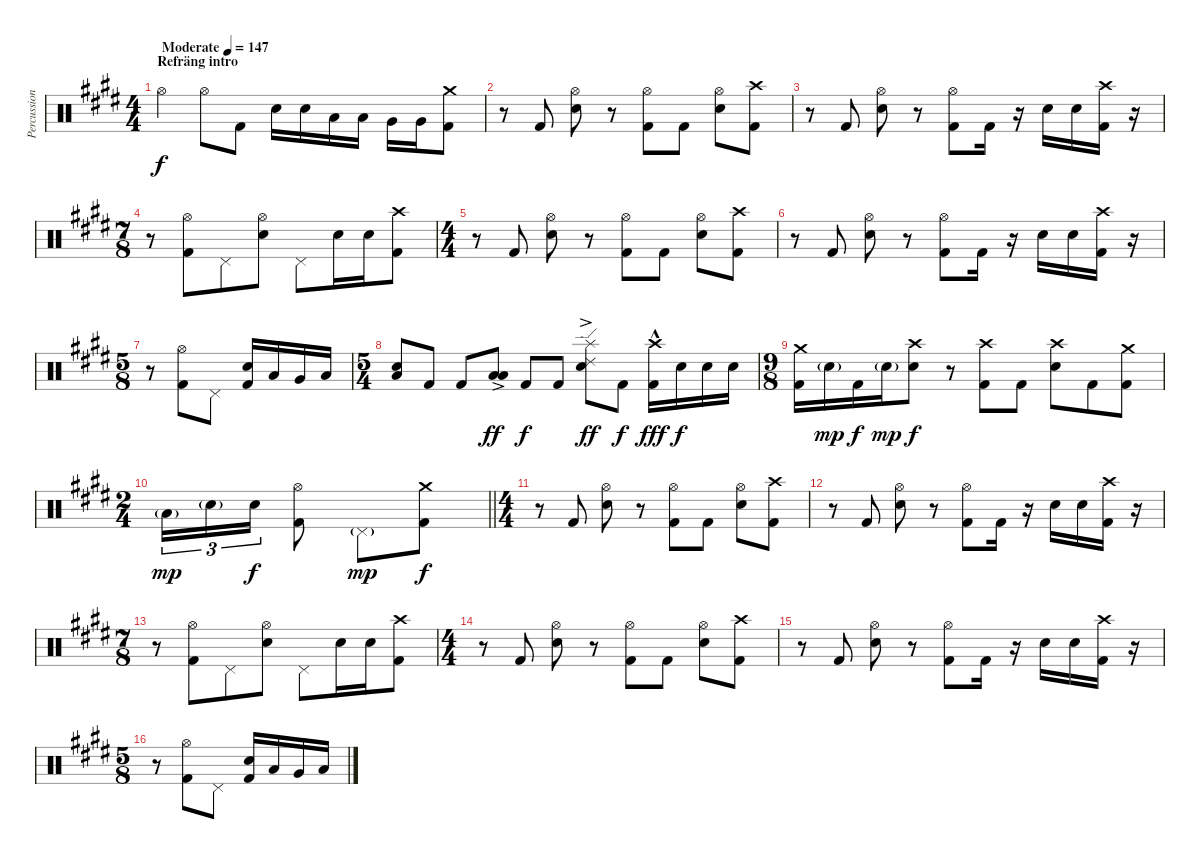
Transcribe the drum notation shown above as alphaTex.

\track ("Percussion" "Percussion") {instrument percussion}
\staff {score}
\articulation defaults
\ts (4 4)
\section ("" "Refräng intro")
\tempo (147 "Moderate")
\clef neutral
\ks e "Hi-Hat (open)".4{dy f} "Hi-Hat (open)".8 "Kick (hit) 2".8 "Snare (hit) 2".16 "Snare (hit) 2".16 "Low Tom (hit)".16 "Low Tom (hit)".16 "Very Low Tom (hit)".16 "Very Low Tom (hit)".16
("Crash medium (hit)" "Kick (hit) 2").8 |
r.8 "Kick (hit) 2".8 ("Hi-Hat (open)" "Snare (hit) 2").8 r.8 ("Hi-Hat (open)" "Kick (hit) 2").8 "Kick (hit) 2".8 ("Hi-Hat (open)" "Snare (hit) 2").8 ("Crash high (hit)" "Kick (hit) 2").8 |
r.8 "Kick (hit) 2".8 ("Hi-Hat (open)" "Snare (hit) 2").8 r.8 ("Hi-Hat (open)" "Kick (hit) 2").8 "Kick (hit) 2".16 r.16 "Snare (hit) 2".16 "Snare (hit) 2".16 ("Crash high (hit)" "Kick (hit) 2").16 r.16 |
\ts (7 8)
r.8 ("Hi-Hat (open)" "Kick (hit) 2").8 "Pedal Hi-Hat (hit)".8 ("Hi-Hat (open)" "Snare (hit) 2").8 "Pedal Hi-Hat (hit)".8 "Snare (hit) 2".16 "Snare (hit) 2".16 ("Crash high (hit)" "Kick (hit) 2").8 |
\ts (4 4)
r.8 "Kick (hit) 2".8 ("Hi-Hat (open)" "Snare (hit) 2").8 r.8 ("Hi-Hat (open)" "Kick (hit) 2").8 "Kick (hit) 2".8 ("Hi-Hat (open)" "Snare (hit) 2").8 ("Crash high (hit)" "Kick (hit) 2").8 |
r.8 "Kick (hit) 2".8 ("Hi-Hat (open)" "Snare (hit) 2").8 r.8 ("Hi-Hat (open)" "Kick (hit) 2").8 "Kick (hit) 2".16 r.16 "Snare (hit) 2".16 "Snare (hit) 2".16 ("Crash high (hit)" "Kick (hit) 2").16 r.16 |
\ts (5 8)
r.8 ("Hi-Hat (open)" "Kick (hit) 2").8 "Pedal Hi-Hat (hit)".8 ("Snare (hit) 2" "Kick (hit) 2").16 "Low Tom (hit)".16 "Very Low Tom (hit)".16 "Low Floor Tom (hit)".16 |
\ts (5 4)
("Snare (hit) 2" "Low Tom (hit)").8{bd 120} "Kick (hit) 2".8 "Kick (hit) 2".8 ("Low Tom (hit)"{ac} "Low Floor Tom (hit)"{ac}).8{bd 120 dy ff} "Kick (hit) 2".8{dy f} "Kick (hit) 2".8 ("Ride (edge) 2" "Splash (hit)" "Snare (hit) 2"{ac}).8{dy ff} "Kick (hit) 2".8{dy f} ("Crash high (hit)"{hac} "Kick (hit) 2"{hac}).16{dy fff} "Snare (hit) 2".16{dy f} "Snare (hit) 2".16 "Snare (hit) 2".16 |
\ts (9 8)
("Crash medium (hit)" "Kick (hit) 2").16 "Snare (hit) 2"{g}.16{dy mp} "Kick (hit) 2".16{dy f} "Snare (hit) 2"{g}.16{dy mp} ("Crash high (hit)" "Snare (hit) 2").8{dy f} r.8 ("Crash high (hit)" "Kick (hit) 2").8 "Kick (hit) 2".8 ("Crash high (hit)" "Snare (hit) 2").8 "Kick (hit) 2".8 ("Crash medium (hit)" "Kick (hit) 2").8 |
\ts (2 4)
\barLineRight lightlight "Low Tom (hit)"{g}.16{tu (3 2) dy mp} "Snare (hit) 2"{g}.16{tu (3 2)} "Snare (hit) 2".16{tu (3 2) dy f}
("Hi-Hat (open)" "Kick (hit) 2").8 "Pedal Hi-Hat (hit)"{g}.8{dy mp} ("Crash medium (hit)" "Kick (hit) 2").8{dy f} |
\ts (4 4)
r.8 "Kick (hit) 2".8 ("Hi-Hat (open)" "Snare (hit) 2").8 r.8 ("Hi-Hat (open)" "Kick (hit) 2").8 "Kick (hit) 2".8 ("Hi-Hat (open)" "Snare (hit) 2").8 ("Crash high (hit)" "Kick (hit) 2").8 |
r.8 "Kick (hit) 2".8 ("Hi-Hat (open)" "Snare (hit) 2").8 r.8 ("Hi-Hat (open)" "Kick (hit) 2").8 "Kick (hit) 2".16 r.16 "Snare (hit) 2".16 "Snare (hit) 2".16 ("Crash high (hit)" "Kick (hit) 2").16 r.16 |
\ts (7 8)
r.8 ("Hi-Hat (open)" "Kick (hit) 2").8 "Pedal Hi-Hat (hit)".8 ("Hi-Hat (open)" "Snare (hit) 2").8 "Pedal Hi-Hat (hit)".8 "Snare (hit) 2".16 "Snare (hit) 2".16 ("Crash high (hit)" "Kick (hit) 2").8 |
\ts (4 4)
r.8 "Kick (hit) 2".8 ("Hi-Hat (open)" "Snare (hit) 2").8 r.8 ("Hi-Hat (open)" "Kick (hit) 2").8 "Kick (hit) 2".8 ("Hi-Hat (open)" "Snare (hit) 2").8 ("Crash high (hit)" "Kick (hit) 2").8 |
r.8 "Kick (hit) 2".8 ("Hi-Hat (open)" "Snare (hit) 2").8 r.8 ("Hi-Hat (open)" "Kick (hit) 2").8 "Kick (hit) 2".16 r.16 "Snare (hit) 2".16 "Snare (hit) 2".16 ("Crash high (hit)" "Kick (hit) 2").16 r.16 |
\ts (5 8)
r.8 ("Hi-Hat (open)" "Kick (hit) 2").8 "Pedal Hi-Hat (hit)".8 ("Snare (hit) 2" "Kick (hit) 2").16 "Low Tom (hit)".16 "Very Low Tom (hit)".16 "Low Floor Tom (hit)".16
